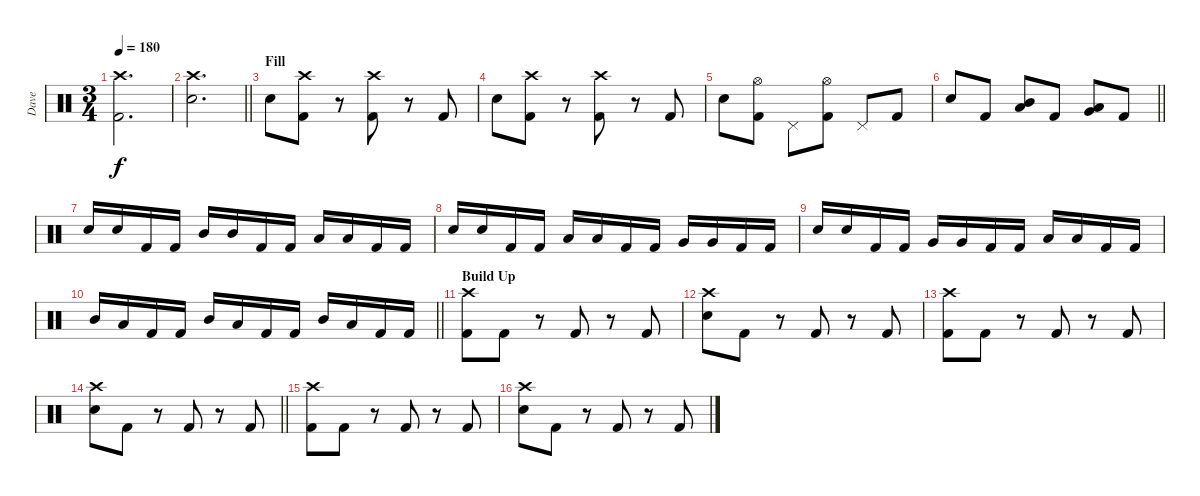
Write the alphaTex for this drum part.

\track ("Dave" "Dave") {instrument percussion}
\staff {score}
\articulation defaults
\ts (3 4)
\tempo 180
\clef neutral
\ks c
("Kick (hit) 2" "Crash high (hit)").2{d dy f} |
\barLineRight lightlight
("Electric Snare (hit)" "Crash high (hit)").2{d} |
\section ("" "Fill")
"Electric Snare (hit)".8 ("Kick (hit) 2" "Crash high (hit)").8 r.8 ("Kick (hit) 2" "Crash high (hit)").8 r.8 "Kick (hit) 2".8 |
"Electric Snare (hit)".8 ("Kick (hit) 2" "Crash high (hit)").8 r.8 ("Kick (hit) 2" "Crash high (hit)").8 r.8 "Kick (hit) 2".8 |
"Electric Snare (hit)".8 ("Kick (hit) 2" "Hi-Hat (open)").8 "Pedal Hi-Hat (hit)".8 ("Kick (hit) 2" "Hi-Hat (open)").8 "Pedal Hi-Hat (hit)".8 "Kick (hit) 2".8 |
\barLineRight lightlight "Electric Snare (hit)".8 "Kick (hit) 2".8
("Mid Tom (hit)" "Low Tom (hit)").8 "Kick (hit) 2".8 ("Low Tom (hit)" "Very Low Tom (hit)").8 "Kick (hit) 2".8 |
"Electric Snare (hit)".16 "Electric Snare (hit)".16 "Kick (hit) 2".16 "Kick (hit) 2".16 "Mid Tom (hit)".16 "Mid Tom (hit)".16 "Kick (hit) 2".16 "Kick (hit) 2".16 "Low Tom (hit)".16 "Low Tom (hit)".16 "Kick (hit) 2".16 "Kick (hit) 2".16 |
"Electric Snare (hit)".16 "Electric Snare (hit)".16 "Kick (hit) 2".16 "Kick (hit) 2".16 "Low Tom (hit)".16 "Low Tom (hit)".16 "Kick (hit) 2".16 "Kick (hit) 2".16 "Very Low Tom (hit)".16 "Very Low Tom (hit)".16 "Kick (hit) 2".16 "Kick (hit) 2".16 |
"Electric Snare (hit)".16 "Electric Snare (hit)".16 "Kick (hit) 2".16 "Kick (hit) 2".16 "Very Low Tom (hit)".16 "Very Low Tom (hit)".16 "Kick (hit) 2".16 "Kick (hit) 2".16 "Low Floor Tom (hit)".16 "Low Floor Tom (hit)".16 "Kick (hit) 2".16 "Kick (hit) 2".16 |
\barLineRight lightlight "Mid Tom (hit)".16 "Low Tom (hit)".16 "Kick (hit) 2".16 "Kick (hit) 2".16 "Mid Tom (hit)".16 "Low Tom (hit)".16 "Kick (hit) 2".16 "Kick (hit) 2".16 "Mid Tom (hit)".16 "Low Tom (hit)".16 "Kick (hit) 2".16 "Kick (hit) 2".16
|
\section ("" "Build Up")
("Kick (hit) 2" "Crash high (hit)").8 "Kick (hit) 2".8 r.8 "Kick (hit) 2".8 r.8 "Kick (hit) 2".8 |
("Electric Snare (hit)" "Crash high (hit)").8 "Kick (hit) 2".8 r.8 "Kick (hit) 2".8 r.8 "Kick (hit) 2".8 |
("Kick (hit) 2" "Crash high (hit)").8 "Kick (hit) 2".8 r.8 "Kick (hit) 2".8 r.8 "Kick (hit) 2".8 |
\barLineRight lightlight
("Electric Snare (hit)" "Crash high (hit)").8 "Kick (hit) 2".8 r.8 "Kick (hit) 2".8 r.8 "Kick (hit) 2".8 |
("Kick (hit) 2" "Crash high (hit)").8 "Kick (hit) 2".8 r.8 "Kick (hit) 2".8 r.8 "Kick (hit) 2".8 |
("Electric Snare (hit)" "Crash high (hit)").8 "Kick (hit) 2".8 r.8 "Kick (hit) 2".8 r.8 "Kick (hit) 2".8
